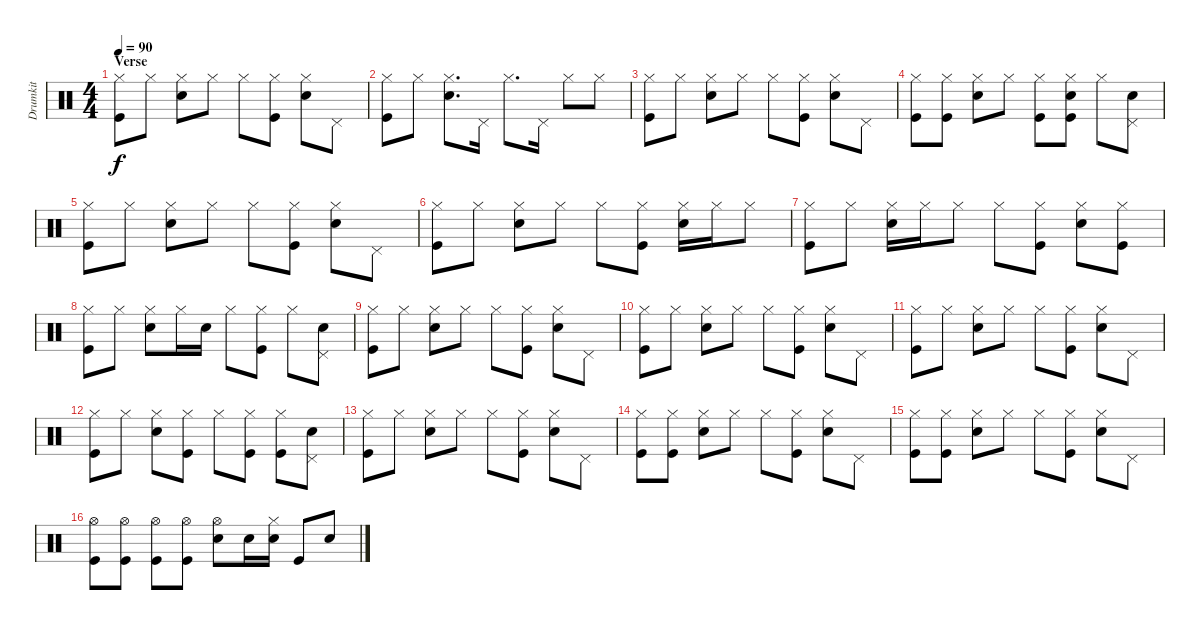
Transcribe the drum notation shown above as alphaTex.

\track ("Drumkit" "Drumkit") {instrument percussion}
\staff {score}
\articulation defaults
\ts (4 4)
\section ("" "Verse")
\tempo 90
\clef neutral
\ks c
("Kick (hit)" "Hi-Hat (closed)").8{dy f} "Hi-Hat (closed)".8 ("Snare (hit) 2" "Hi-Hat (closed)").8 "Hi-Hat (closed)".8 "Hi-Hat (closed)".8 ("Kick (hit)" "Hi-Hat (closed)").8 ("Snare (hit) 2" "Hi-Hat (closed)").8 "Pedal Hi-Hat (hit)".8 |
("Kick (hit)" "Hi-Hat (closed)").8 "Hi-Hat (closed)".8 ("Snare (hit) 2" "Hi-Hat (closed)").8{d} "Pedal Hi-Hat (hit)".16 "Hi-Hat (closed)".8{d} "Pedal Hi-Hat (hit)".16 "Hi-Hat (closed)".8 "Hi-Hat (closed)".8 |
("Kick (hit)" "Hi-Hat (closed)").8 "Hi-Hat (closed)".8 ("Snare (hit) 2" "Hi-Hat (closed)").8 "Hi-Hat (closed)".8 "Hi-Hat (closed)".8 ("Kick (hit)" "Hi-Hat (closed)").8 ("Snare (hit) 2" "Hi-Hat (closed)").8 "Pedal Hi-Hat (hit)".8 |
("Kick (hit)" "Hi-Hat (closed)").8 ("Kick (hit)" "Hi-Hat (closed)").8 ("Snare (hit) 2" "Hi-Hat (closed)").8 "Hi-Hat (closed)".8 ("Kick (hit)" "Hi-Hat (closed)").8 ("Kick (hit)" "Snare (hit) 2" "Hi-Hat (closed)").8 "Hi-Hat (closed)".8 ("Snare (hit) 2" "Pedal Hi-Hat (hit)").8 |
("Kick (hit)" "Hi-Hat (closed)").8 "Hi-Hat (closed)".8 ("Snare (hit) 2" "Hi-Hat (closed)").8 "Hi-Hat (closed)".8 "Hi-Hat (closed)".8 ("Kick (hit)" "Hi-Hat (closed)").8 ("Snare (hit) 2" "Hi-Hat (closed)").8 "Pedal Hi-Hat (hit)".8 |
("Kick (hit)" "Hi-Hat (closed)").8 "Hi-Hat (closed)".8 ("Snare (hit) 2" "Hi-Hat (closed)").8 "Hi-Hat (closed)".8 "Hi-Hat (closed)".8 ("Kick (hit)" "Hi-Hat (closed)").8 ("Snare (hit) 2" "Hi-Hat (closed)").16 "Hi-Hat (closed)".16 "Hi-Hat (closed)".8 |
("Kick (hit)" "Hi-Hat (closed)").8 "Hi-Hat (closed)".8 ("Snare (hit) 2" "Hi-Hat (closed)").16 "Hi-Hat (closed)".16 "Hi-Hat (closed)".8 "Hi-Hat (closed)".8 ("Kick (hit)" "Hi-Hat (closed)").8 ("Snare (hit) 2" "Hi-Hat (closed)").8 ("Kick (hit)" "Hi-Hat (closed)").8 |
("Kick (hit)" "Hi-Hat (closed)").8 "Hi-Hat (closed)".8 ("Snare (hit) 2" "Hi-Hat (closed)").8 "Hi-Hat (closed)".16 "Snare (hit) 2".16 "Hi-Hat (closed)".8 ("Kick (hit)" "Hi-Hat (closed)").8 "Hi-Hat (closed)".8 ("Snare (hit) 2" "Pedal Hi-Hat (hit)").8 |
("Kick (hit)" "Hi-Hat (closed)").8 "Hi-Hat (closed)".8 ("Snare (hit) 2" "Hi-Hat (closed)").8 "Hi-Hat (closed)".8 "Hi-Hat (closed)".8 ("Kick (hit)" "Hi-Hat (closed)").8 ("Snare (hit) 2" "Hi-Hat (closed)").8 "Pedal Hi-Hat (hit)".8 |
("Kick (hit)" "Hi-Hat (closed)").8 "Hi-Hat (closed)".8 ("Snare (hit) 2" "Hi-Hat (closed)").8 "Hi-Hat (closed)".8 "Hi-Hat (closed)".8 ("Kick (hit)" "Hi-Hat (closed)").8 ("Snare (hit) 2" "Hi-Hat (closed)").8 "Pedal Hi-Hat (hit)".8 |
("Kick (hit)" "Hi-Hat (closed)").8 "Hi-Hat (closed)".8 ("Snare (hit) 2" "Hi-Hat (closed)").8 "Hi-Hat (closed)".8 "Hi-Hat (closed)".8 ("Kick (hit)" "Hi-Hat (closed)").8 ("Snare (hit) 2" "Hi-Hat (closed)").8 "Pedal Hi-Hat (hit)".8 |
("Kick (hit)" "Hi-Hat (closed)").8 "Hi-Hat (closed)".8 ("Snare (hit) 2" "Hi-Hat (closed)").8 ("Kick (hit)" "Hi-Hat (closed)").8 "Hi-Hat (closed)".8 ("Kick (hit)" "Hi-Hat (closed)").8 ("Kick (hit)" "Hi-Hat (closed)").8 ("Snare (hit) 2" "Pedal Hi-Hat (hit)").8 |
("Kick (hit)" "Hi-Hat (closed)").8 "Hi-Hat (closed)".8 ("Snare (hit) 2" "Hi-Hat (closed)").8 "Hi-Hat (closed)".8 "Hi-Hat (closed)".8 ("Kick (hit)" "Hi-Hat (closed)").8 ("Snare (hit) 2" "Hi-Hat (closed)").8 "Pedal Hi-Hat (hit)".8 |
("Kick (hit)" "Hi-Hat (closed)").8 ("Kick (hit)" "Hi-Hat (closed)").8 ("Snare (hit) 2" "Hi-Hat (closed)").8 "Hi-Hat (closed)".8 "Hi-Hat (closed)".8 ("Kick (hit)" "Hi-Hat (closed)").8 ("Snare (hit) 2" "Hi-Hat (closed)").8 "Pedal Hi-Hat (hit)".8 |
("Kick (hit)" "Hi-Hat (closed)").8 ("Kick (hit)" "Hi-Hat (closed)").8 ("Snare (hit) 2" "Hi-Hat (closed)").8 "Hi-Hat (closed)".8 "Hi-Hat (closed)".8 ("Kick (hit)" "Hi-Hat (closed)").8 ("Snare (hit) 2" "Hi-Hat (closed)").8 "Pedal Hi-Hat (hit)".8 |
("Kick (hit)" "Hi-Hat (open)").8 ("Kick (hit)" "Hi-Hat (open)").8 ("Kick (hit)" "Hi-Hat (open)").8 ("Kick (hit)" "Hi-Hat (open)").8 ("Snare (hit) 2" "Hi-Hat (open)").8 "Snare (hit) 2".16 ("Snare (hit) 2" "Hi-Hat (closed)").16 "Kick (hit)".8 "Snare (hit) 2".8
